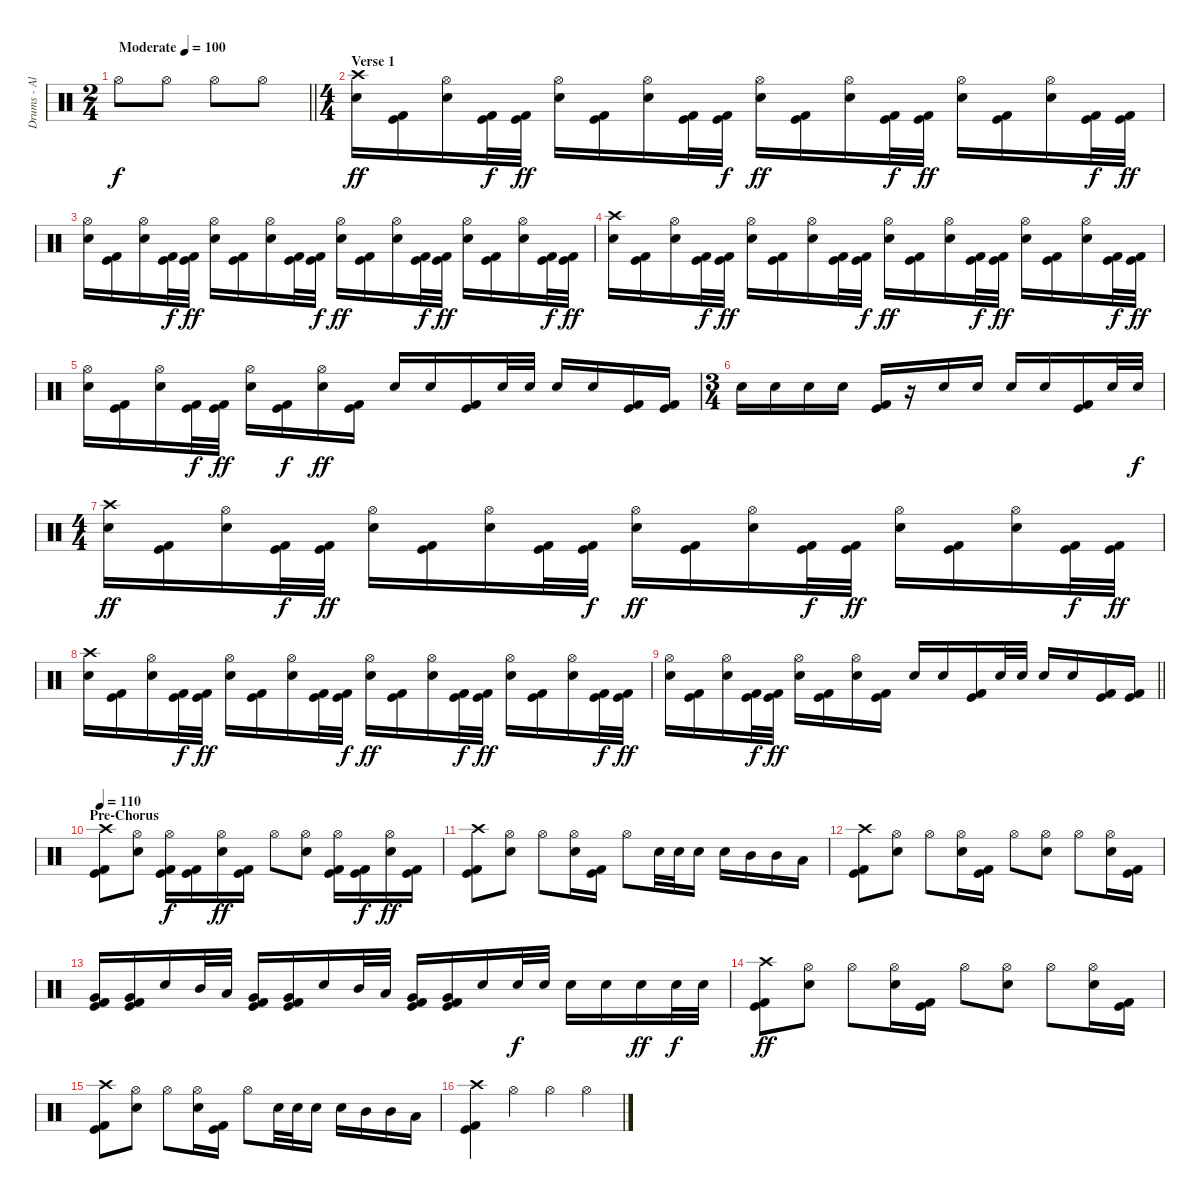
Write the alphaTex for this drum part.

\track ("Drums - Alex Shellnut" "Drums - Al") {instrument percussion}
\staff {score}
\articulation defaults
\ts (2 4)
\tempo (100 "Moderate")
\clef neutral
\barLineRight lightlight
\ks c "Hi-Hat (open)".8{dy f} "Hi-Hat (open)".8 "Hi-Hat (open)".8 "Hi-Hat (open)".8
|
\ts (4 4)
\section ("" "Verse 1")
("Crash high (hit)" "Electric Snare (hit)").16{dy ff} ("Kick (hit)" "Kick (hit) 2").16 ("Hi-Hat (open)" "Electric Snare (hit)").16 ("Kick (hit)" "Kick (hit) 2").32{dy f} ("Kick (hit)" "Kick (hit) 2").32{dy ff} ("Hi-Hat (open)" "Electric Snare (hit)").16 ("Kick (hit)" "Kick (hit) 2").16 ("Hi-Hat (open)" "Electric Snare (hit)").16 ("Kick (hit)" "Kick (hit) 2").32 ("Kick (hit)" "Kick (hit) 2").32{dy f} ("Hi-Hat (open)" "Electric Snare (hit)").16{dy ff} ("Kick (hit)" "Kick (hit) 2").16 ("Hi-Hat (open)" "Electric Snare (hit)").16 ("Kick (hit)" "Kick (hit) 2").32{dy f} ("Kick (hit)" "Kick (hit) 2").32{dy ff} ("Hi-Hat (open)" "Electric Snare (hit)").16 ("Kick (hit)" "Kick (hit) 2").16 ("Hi-Hat (open)" "Electric Snare (hit)").16 ("Kick (hit)" "Kick (hit) 2").32{dy f} ("Kick (hit)" "Kick (hit) 2").32{dy ff} |
("Hi-Hat (open)" "Electric Snare (hit)").16 ("Kick (hit)" "Kick (hit) 2").16 ("Hi-Hat (open)" "Electric Snare (hit)").16 ("Kick (hit)" "Kick (hit) 2").32{dy f} ("Kick (hit)" "Kick (hit) 2").32{dy ff} ("Hi-Hat (open)" "Electric Snare (hit)").16 ("Kick (hit)" "Kick (hit) 2").16 ("Hi-Hat (open)" "Electric Snare (hit)").16 ("Kick (hit)" "Kick (hit) 2").32 ("Kick (hit)" "Kick (hit) 2").32{dy f} ("Hi-Hat (open)" "Electric Snare (hit)").16{dy ff} ("Kick (hit)" "Kick (hit) 2").16 ("Hi-Hat (open)" "Electric Snare (hit)").16 ("Kick (hit)" "Kick (hit) 2").32{dy f} ("Kick (hit)" "Kick (hit) 2").32{dy ff} ("Hi-Hat (open)" "Electric Snare (hit)").16 ("Kick (hit)" "Kick (hit) 2").16 ("Hi-Hat (open)" "Electric Snare (hit)").16 ("Kick (hit)" "Kick (hit) 2").32{dy f} ("Kick (hit)" "Kick (hit) 2").32{dy ff} |
("Crash high (hit)" "Electric Snare (hit)").16 ("Kick (hit)" "Kick (hit) 2").16 ("Hi-Hat (open)" "Electric Snare (hit)").16 ("Kick (hit)" "Kick (hit) 2").32{dy f} ("Kick (hit)" "Kick (hit) 2").32{dy ff} ("Hi-Hat (open)" "Electric Snare (hit)").16 ("Kick (hit)" "Kick (hit) 2").16 ("Hi-Hat (open)" "Electric Snare (hit)").16 ("Kick (hit)" "Kick (hit) 2").32 ("Kick (hit)" "Kick (hit) 2").32{dy f} ("Hi-Hat (open)" "Electric Snare (hit)").16{dy ff} ("Kick (hit)" "Kick (hit) 2").16 ("Hi-Hat (open)" "Electric Snare (hit)").16 ("Kick (hit)" "Kick (hit) 2").32{dy f} ("Kick (hit)" "Kick (hit) 2").32{dy ff} ("Hi-Hat (open)" "Electric Snare (hit)").16 ("Kick (hit)" "Kick (hit) 2").16 ("Hi-Hat (open)" "Electric Snare (hit)").16 ("Kick (hit)" "Kick (hit) 2").32{dy f} ("Kick (hit)" "Kick (hit) 2").32{dy ff} |
("Hi-Hat (open)" "Electric Snare (hit)").16 ("Kick (hit)" "Kick (hit) 2").16 ("Hi-Hat (open)" "Electric Snare (hit)").16 ("Kick (hit)" "Kick (hit) 2").32{dy f} ("Kick (hit)" "Kick (hit) 2").32{dy ff} ("Hi-Hat (open)" "Electric Snare (hit)").16 ("Kick (hit)" "Kick (hit) 2").16{dy f} ("Hi-Hat (open)" "Electric Snare (hit)").16{dy ff} ("Kick (hit)" "Kick (hit) 2").16 "Electric Snare (hit)".16 "Electric Snare (hit)".16 ("Kick (hit) 2" "Kick (hit)").16 "Electric Snare (hit)".32 "Electric Snare (hit)".32 "Electric Snare (hit)".16 "Electric Snare (hit)".16 ("Kick (hit)" "Kick (hit) 2").16 ("Kick (hit)" "Kick (hit) 2").16 |
\ts (3 4)
"Electric Snare (hit)".16 "Electric Snare (hit)".16 "Electric Snare (hit)".16 "Electric Snare (hit)".16 ("Kick (hit)" "Kick (hit) 2").16 r.16 "Electric Snare (hit)".16 "Electric Snare (hit)".16 "Electric Snare (hit)".16 "Electric Snare (hit)".16 ("Kick (hit)" "Kick (hit) 2").16 "Electric Snare (hit)".32 "Electric Snare (hit)".32{dy f} |
\ts (4 4)
("Crash high (hit)" "Electric Snare (hit)").16{dy ff} ("Kick (hit)" "Kick (hit) 2").16 ("Hi-Hat (open)" "Electric Snare (hit)").16 ("Kick (hit)" "Kick (hit) 2").32{dy f} ("Kick (hit)" "Kick (hit) 2").32{dy ff} ("Hi-Hat (open)" "Electric Snare (hit)").16 ("Kick (hit)" "Kick (hit) 2").16 ("Hi-Hat (open)" "Electric Snare (hit)").16 ("Kick (hit)" "Kick (hit) 2").32 ("Kick (hit)" "Kick (hit) 2").32{dy f} ("Hi-Hat (open)" "Electric Snare (hit)").16{dy ff} ("Kick (hit)" "Kick (hit) 2").16 ("Hi-Hat (open)" "Electric Snare (hit)").16 ("Kick (hit)" "Kick (hit) 2").32{dy f} ("Kick (hit)" "Kick (hit) 2").32{dy ff} ("Hi-Hat (open)" "Electric Snare (hit)").16 ("Kick (hit)" "Kick (hit) 2").16 ("Hi-Hat (open)" "Electric Snare (hit)").16 ("Kick (hit)" "Kick (hit) 2").32{dy f} ("Kick (hit)" "Kick (hit) 2").32{dy ff} |
("Crash high (hit)" "Electric Snare (hit)").16 ("Kick (hit)" "Kick (hit) 2").16 ("Hi-Hat (open)" "Electric Snare (hit)").16 ("Kick (hit)" "Kick (hit) 2").32{dy f} ("Kick (hit)" "Kick (hit) 2").32{dy ff} ("Hi-Hat (open)" "Electric Snare (hit)").16 ("Kick (hit)" "Kick (hit) 2").16 ("Hi-Hat (open)" "Electric Snare (hit)").16 ("Kick (hit)" "Kick (hit) 2").32 ("Kick (hit)" "Kick (hit) 2").32{dy f} ("Hi-Hat (open)" "Electric Snare (hit)").16{dy ff} ("Kick (hit)" "Kick (hit) 2").16 ("Hi-Hat (open)" "Electric Snare (hit)").16 ("Kick (hit)" "Kick (hit) 2").32{dy f} ("Kick (hit)" "Kick (hit) 2").32{dy ff} ("Hi-Hat (open)" "Electric Snare (hit)").16 ("Kick (hit)" "Kick (hit) 2").16 ("Hi-Hat (open)" "Electric Snare (hit)").16 ("Kick (hit)" "Kick (hit) 2").32{dy f} ("Kick (hit)" "Kick (hit) 2").32{dy ff} |
\barLineRight lightlight
("Hi-Hat (open)" "Electric Snare (hit)").16 ("Kick (hit)" "Kick (hit) 2").16 ("Hi-Hat (open)" "Electric Snare (hit)").16 ("Kick (hit)" "Kick (hit) 2").32{dy f} ("Kick (hit)" "Kick (hit) 2").32{dy ff} ("Hi-Hat (open)" "Electric Snare (hit)").16 ("Kick (hit)" "Kick (hit) 2").16 ("Hi-Hat (open)" "Electric Snare (hit)").16 ("Kick (hit)" "Kick (hit) 2").16 "Electric Snare (hit)".16 "Electric Snare (hit)".16 ("Kick (hit) 2" "Kick (hit)").16 "Electric Snare (hit)".32 "Electric Snare (hit)".32 "Electric Snare (hit)".16 "Electric Snare (hit)".16 ("Kick (hit)" "Kick (hit) 2").16 ("Kick (hit)" "Kick (hit) 2").16 |
\section ("" "Pre-Chorus")
\tempo 110
("Crash high (hit)" "Kick (hit)" "Kick (hit) 2").8 ("Hi-Hat (open)" "Electric Snare (hit)").8 ("Hi-Hat (open)" "Kick (hit)" "Kick (hit) 2").16{dy f} ("Kick (hit)" "Kick (hit) 2").16 ("Hi-Hat (open)" "Electric Snare (hit)").16{dy ff} ("Kick (hit)" "Kick (hit) 2").16 "Hi-Hat (open)".8 ("Hi-Hat (open)" "Electric Snare (hit)").8 ("Hi-Hat (open)" "Kick (hit)" "Kick (hit) 2").16 ("Kick (hit)" "Kick (hit) 2").16{dy f} ("Hi-Hat (open)" "Electric Snare (hit)").16{dy ff} ("Kick (hit)" "Kick (hit) 2").16 |
("Crash high (hit)" "Kick (hit)" "Kick (hit) 2").8 ("Hi-Hat (open)" "Electric Snare (hit)").8 "Hi-Hat (open)".8 ("Hi-Hat (open)" "Electric Snare (hit)").16 ("Kick (hit)" "Kick (hit) 2").16 "Hi-Hat (open)".8 "Electric Snare (hit)".32 "Electric Snare (hit)".32 "Electric Snare (hit)".16 "Electric Snare (hit)".16 "Mid Tom (hit)".16 "Mid Tom (hit)".16 "Low Tom (hit)".16 |
("Crash high (hit)" "Kick (hit)" "Kick (hit) 2").8 ("Hi-Hat (open)" "Electric Snare (hit)").8 "Hi-Hat (open)".8 ("Hi-Hat (open)" "Electric Snare (hit)").16 ("Kick (hit)" "Kick (hit) 2").16 "Hi-Hat (open)".8 ("Hi-Hat (open)" "Electric Snare (hit)").8 "Hi-Hat (open)".8 ("Hi-Hat (open)" "Electric Snare (hit)").16 ("Kick (hit)" "Kick (hit) 2").16 |
("Very Low Tom (hit)" "Kick (hit)" "Kick (hit) 2").16 ("Very Low Tom (hit)" "Kick (hit)" "Kick (hit) 2").16 "Electric Snare (hit)".16 "Mid Tom (hit)".32 "Low Tom (hit)".32 ("Very Low Tom (hit)" "Kick (hit)" "Kick (hit) 2").16 ("Very Low Tom (hit)" "Kick (hit)" "Kick (hit) 2").16 "Electric Snare (hit)".16 "Mid Tom (hit)".32 "Low Tom (hit)".32 ("Very Low Tom (hit)" "Kick (hit)" "Kick (hit) 2").16 ("Very Low Tom (hit)" "Kick (hit)" "Kick (hit) 2").16 "Electric Snare (hit)".16 "Electric Snare (hit)".32{dy f} "Electric Snare (hit)".32 "Electric Snare (hit)".16 "Electric Snare (hit)".16 "Electric Snare (hit)".16{dy ff} "Electric Snare (hit)".32{dy f} "Electric Snare (hit)".32 |
("Crash high (hit)" "Kick (hit)" "Kick (hit) 2").8{dy ff} ("Hi-Hat (open)" "Electric Snare (hit)").8 "Hi-Hat (open)".8 ("Hi-Hat (open)" "Electric Snare (hit)").16 ("Kick (hit)" "Kick (hit) 2").16 "Hi-Hat (open)".8 ("Hi-Hat (open)" "Electric Snare (hit)").8 "Hi-Hat (open)".8 ("Hi-Hat (open)" "Electric Snare (hit)").16 ("Kick (hit)" "Kick (hit) 2").16 |
("Crash high (hit)" "Kick (hit)" "Kick (hit) 2").8 ("Hi-Hat (open)" "Electric Snare (hit)").8 "Hi-Hat (open)".8 ("Hi-Hat (open)" "Electric Snare (hit)").16 ("Kick (hit)" "Kick (hit) 2").16 "Hi-Hat (open)".8 "Electric Snare (hit)".32 "Electric Snare (hit)".32 "Electric Snare (hit)".16 "Electric Snare (hit)".16 "Mid Tom (hit)".16 "Mid Tom (hit)".16 "Low Tom (hit)".16 |
("Crash high (hit)" "Kick (hit)" "Kick (hit) 2").4 "Hi-Hat (open)".4 "Hi-Hat (open)".4 "Hi-Hat (open)".4
